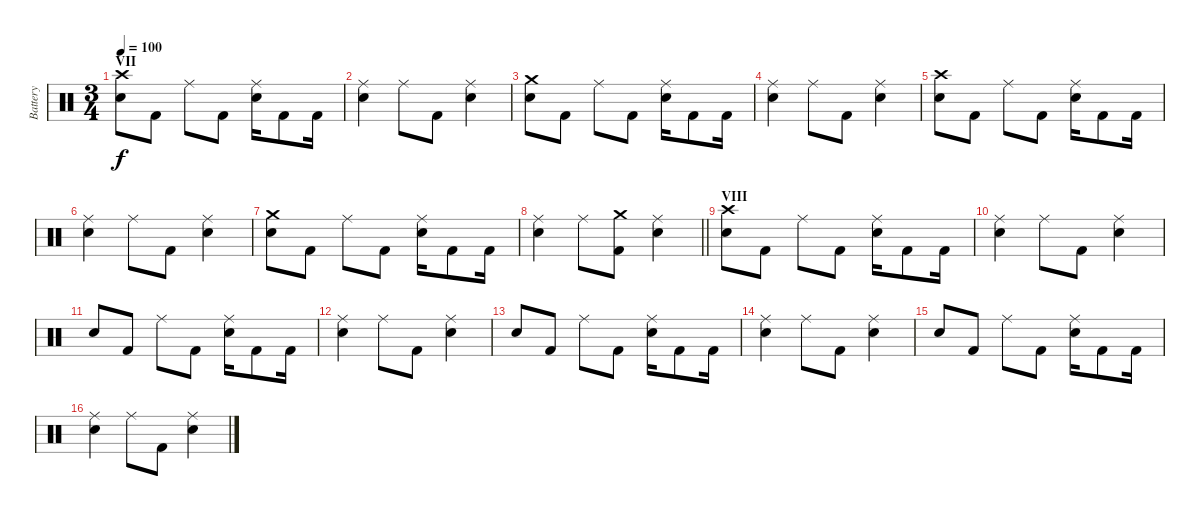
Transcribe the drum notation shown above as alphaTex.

\track ("Battery" "Battery") {instrument percussion}
\staff {score}
\articulation defaults
\ts (3 4)
\section ("" "VII")
\tempo 100
\clef neutral
\ks c
("Crash high (hit)" "Electric Snare (hit)").8{dy f} "Kick (hit) 2".8 "Ride (middle)".8 "Kick (hit) 2".8 ("Ride (middle)" "Electric Snare (hit)").16 "Kick (hit) 2".8 "Kick (hit) 2".16 |
("Ride (middle)" "Electric Snare (hit)").4 "Ride (middle)".8 "Kick (hit) 2".8 ("Ride (middle)" "Electric Snare (hit)").4 |
("Crash medium (hit)" "Electric Snare (hit)").8 "Kick (hit) 2".8 "Ride (middle)".8 "Kick (hit) 2".8 ("Ride (middle)" "Electric Snare (hit)").16 "Kick (hit) 2".8 "Kick (hit) 2".16 |
("Ride (middle)" "Electric Snare (hit)").4 "Ride (middle)".8 "Kick (hit) 2".8 ("Ride (middle)" "Electric Snare (hit)").4 |
("Crash high (hit)" "Electric Snare (hit)").8 "Kick (hit) 2".8 "Ride (middle)".8 "Kick (hit) 2".8 ("Ride (middle)" "Electric Snare (hit)").16 "Kick (hit) 2".8 "Kick (hit) 2".16 |
("Ride (middle)" "Electric Snare (hit)").4 "Ride (middle)".8 "Kick (hit) 2".8 ("Ride (middle)" "Electric Snare (hit)").4 |
("Crash medium (hit)" "Electric Snare (hit)").8 "Kick (hit) 2".8 "Ride (middle)".8 "Kick (hit) 2".8 ("Ride (middle)" "Electric Snare (hit)").16 "Kick (hit) 2".8 "Kick (hit) 2".16 |
\barLineRight lightlight
("Ride (middle)" "Electric Snare (hit)").4 "Ride (middle)".8 ("Crash medium (hit)" "Kick (hit) 2").8 ("Ride (middle)" "Electric Snare (hit)").4 |
\section ("" "VIII")
("Crash high (hit)" "Electric Snare (hit)").8 "Kick (hit) 2".8 "Ride (middle)".8 "Kick (hit) 2".8 ("Ride (middle)" "Electric Snare (hit)").16 "Kick (hit) 2".8 "Kick (hit) 2".16 |
("Ride (middle)" "Electric Snare (hit)").4 "Ride (middle)".8 "Kick (hit) 2".8 ("Ride (middle)" "Electric Snare (hit)").4 |
"Electric Snare (hit)".8 "Kick (hit) 2".8 "Ride (middle)".8 "Kick (hit) 2".8 ("Ride (middle)" "Electric Snare (hit)").16 "Kick (hit) 2".8 "Kick (hit) 2".16 |
("Ride (middle)" "Electric Snare (hit)").4 "Ride (middle)".8 "Kick (hit) 2".8 ("Ride (middle)" "Electric Snare (hit)").4 |
"Electric Snare (hit)".8 "Kick (hit) 2".8 "Ride (middle)".8 "Kick (hit) 2".8 ("Ride (middle)" "Electric Snare (hit)").16 "Kick (hit) 2".8 "Kick (hit) 2".16 |
("Ride (middle)" "Electric Snare (hit)").4 "Ride (middle)".8 "Kick (hit) 2".8 ("Ride (middle)" "Electric Snare (hit)").4 |
"Electric Snare (hit)".8 "Kick (hit) 2".8 "Ride (middle)".8 "Kick (hit) 2".8 ("Ride (middle)" "Electric Snare (hit)").16 "Kick (hit) 2".8 "Kick (hit) 2".16 |
("Ride (middle)" "Electric Snare (hit)").4 "Ride (middle)".8 "Kick (hit) 2".8 ("Ride (middle)" "Electric Snare (hit)").4
